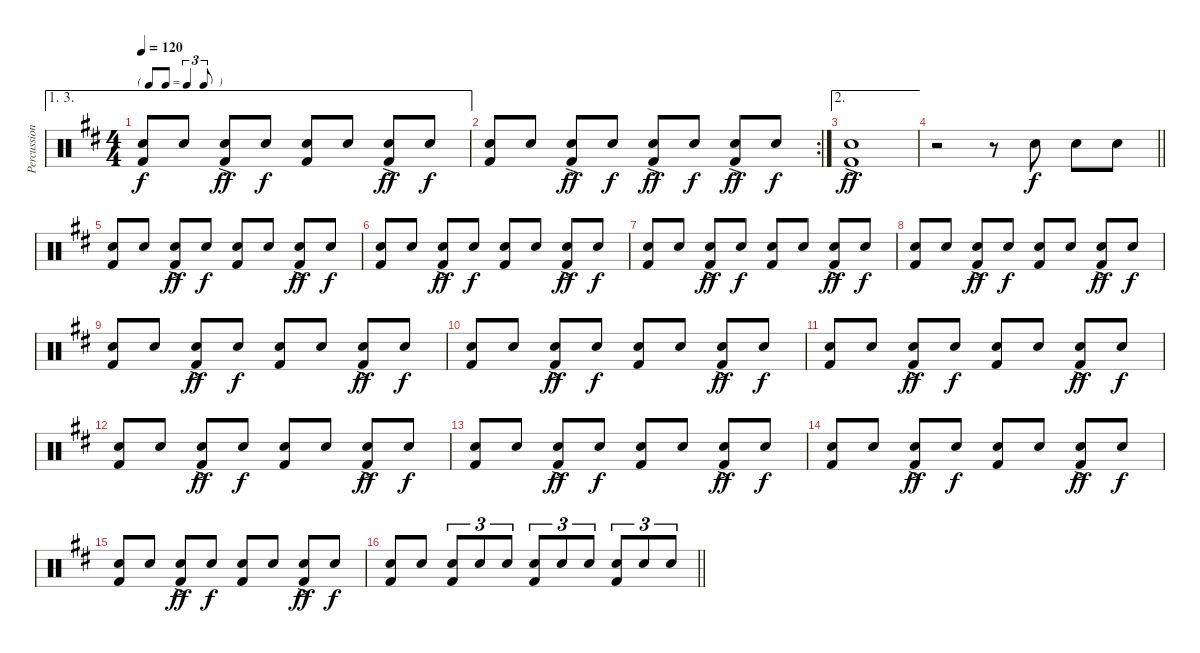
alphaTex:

\track ("Percussion" "Percussion") {instrument percussion}
\staff {score}
\articulation defaults
\ae (1 3)
\ts (4 4)
\tf triplet8th
\tempo 120
\clef neutral
\ks d
("Snare (hit) 2" "Kick (hit) 2").8{dy f} "Snare (hit) 2".8 ("Snare (hit) 2"{ac} "Kick (hit) 2").8{dy ff} "Snare (hit) 2".8{dy f} ("Snare (hit) 2" "Kick (hit) 2").8 "Snare (hit) 2".8 ("Snare (hit) 2"{ac} "Kick (hit) 2").8{dy ff} "Snare (hit) 2".8{dy f} |
\rc 2
("Snare (hit) 2" "Kick (hit) 2").8 "Snare (hit) 2".8 ("Snare (hit) 2"{ac} "Kick (hit) 2").8{dy ff} "Snare (hit) 2".8{dy f} ("Snare (hit) 2"{ac} "Kick (hit) 2").8{dy ff} "Snare (hit) 2".8{dy f} ("Snare (hit) 2"{ac} "Kick (hit) 2").8{dy ff} "Snare (hit) 2".8{dy f} |
\ae 2
("Snare (hit) 2"{ac} "Kick (hit) 2").1{dy ff} |
\barLineRight lightlight
r.2 r.8 "Snare (hit) 2".8{dy f} "Snare (hit) 2".8 "Snare (hit) 2".8 |
("Snare (hit) 2" "Kick (hit) 2").8 "Snare (hit) 2".8 ("Snare (hit) 2"{ac} "Kick (hit) 2").8{dy ff} "Snare (hit) 2".8{dy f} ("Snare (hit) 2" "Kick (hit) 2").8 "Snare (hit) 2".8 ("Snare (hit) 2"{ac} "Kick (hit) 2").8{dy ff} "Snare (hit) 2".8{dy f} |
("Snare (hit) 2" "Kick (hit) 2").8 "Snare (hit) 2".8 ("Snare (hit) 2"{ac} "Kick (hit) 2").8{dy ff} "Snare (hit) 2".8{dy f} ("Snare (hit) 2" "Kick (hit) 2").8 "Snare (hit) 2".8 ("Snare (hit) 2"{ac} "Kick (hit) 2").8{dy ff} "Snare (hit) 2".8{dy f} |
("Snare (hit) 2" "Kick (hit) 2").8 "Snare (hit) 2".8 ("Snare (hit) 2"{ac} "Kick (hit) 2").8{dy ff} "Snare (hit) 2".8{dy f} ("Snare (hit) 2" "Kick (hit) 2").8 "Snare (hit) 2".8 ("Snare (hit) 2"{ac} "Kick (hit) 2").8{dy ff} "Snare (hit) 2".8{dy f} |
("Snare (hit) 2" "Kick (hit) 2").8 "Snare (hit) 2".8 ("Snare (hit) 2"{ac} "Kick (hit) 2").8{dy ff} "Snare (hit) 2".8{dy f} ("Snare (hit) 2" "Kick (hit) 2").8 "Snare (hit) 2".8 ("Snare (hit) 2"{ac} "Kick (hit) 2").8{dy ff} "Snare (hit) 2".8{dy f} |
("Snare (hit) 2" "Kick (hit) 2").8 "Snare (hit) 2".8 ("Snare (hit) 2"{ac} "Kick (hit) 2").8{dy ff} "Snare (hit) 2".8{dy f} ("Snare (hit) 2" "Kick (hit) 2").8 "Snare (hit) 2".8 ("Snare (hit) 2"{ac} "Kick (hit) 2").8{dy ff} "Snare (hit) 2".8{dy f} |
("Snare (hit) 2" "Kick (hit) 2").8 "Snare (hit) 2".8 ("Snare (hit) 2"{ac} "Kick (hit) 2").8{dy ff} "Snare (hit) 2".8{dy f} ("Snare (hit) 2" "Kick (hit) 2").8 "Snare (hit) 2".8 ("Snare (hit) 2"{ac} "Kick (hit) 2").8{dy ff} "Snare (hit) 2".8{dy f} |
("Snare (hit) 2" "Kick (hit) 2").8 "Snare (hit) 2".8 ("Snare (hit) 2"{ac} "Kick (hit) 2").8{dy ff} "Snare (hit) 2".8{dy f} ("Snare (hit) 2" "Kick (hit) 2").8 "Snare (hit) 2".8 ("Snare (hit) 2"{ac} "Kick (hit) 2").8{dy ff} "Snare (hit) 2".8{dy f} |
("Snare (hit) 2" "Kick (hit) 2").8 "Snare (hit) 2".8 ("Snare (hit) 2"{ac} "Kick (hit) 2").8{dy ff} "Snare (hit) 2".8{dy f} ("Snare (hit) 2" "Kick (hit) 2").8 "Snare (hit) 2".8 ("Snare (hit) 2"{ac} "Kick (hit) 2").8{dy ff} "Snare (hit) 2".8{dy f} |
("Snare (hit) 2" "Kick (hit) 2").8 "Snare (hit) 2".8 ("Snare (hit) 2"{ac} "Kick (hit) 2").8{dy ff} "Snare (hit) 2".8{dy f} ("Snare (hit) 2" "Kick (hit) 2").8 "Snare (hit) 2".8 ("Snare (hit) 2"{ac} "Kick (hit) 2").8{dy ff} "Snare (hit) 2".8{dy f} |
("Snare (hit) 2" "Kick (hit) 2").8 "Snare (hit) 2".8 ("Snare (hit) 2"{ac} "Kick (hit) 2").8{dy ff} "Snare (hit) 2".8{dy f} ("Snare (hit) 2" "Kick (hit) 2").8 "Snare (hit) 2".8 ("Snare (hit) 2"{ac} "Kick (hit) 2").8{dy ff} "Snare (hit) 2".8{dy f} |
("Snare (hit) 2" "Kick (hit) 2").8 "Snare (hit) 2".8 ("Snare (hit) 2"{ac} "Kick (hit) 2").8{dy ff} "Snare (hit) 2".8{dy f} ("Snare (hit) 2" "Kick (hit) 2").8 "Snare (hit) 2".8 ("Snare (hit) 2"{ac} "Kick (hit) 2").8{dy ff} "Snare (hit) 2".8{dy f} |
\barLineRight lightlight
("Snare (hit) 2" "Kick (hit) 2").8 "Snare (hit) 2".8 ("Snare (hit) 2" "Kick (hit) 2").8{tu (3 2)} "Snare (hit) 2".8{tu (3 2)} "Snare (hit) 2".8{tu (3 2)} ("Snare (hit) 2" "Kick (hit) 2").8{tu (3 2)} "Snare (hit) 2".8{tu (3 2)} "Snare (hit) 2".8{tu (3 2)} ("Snare (hit) 2" "Kick (hit) 2").8{tu (3 2)} "Snare (hit) 2".8{tu (3 2)} "Snare (hit) 2".8{tu (3 2)}
